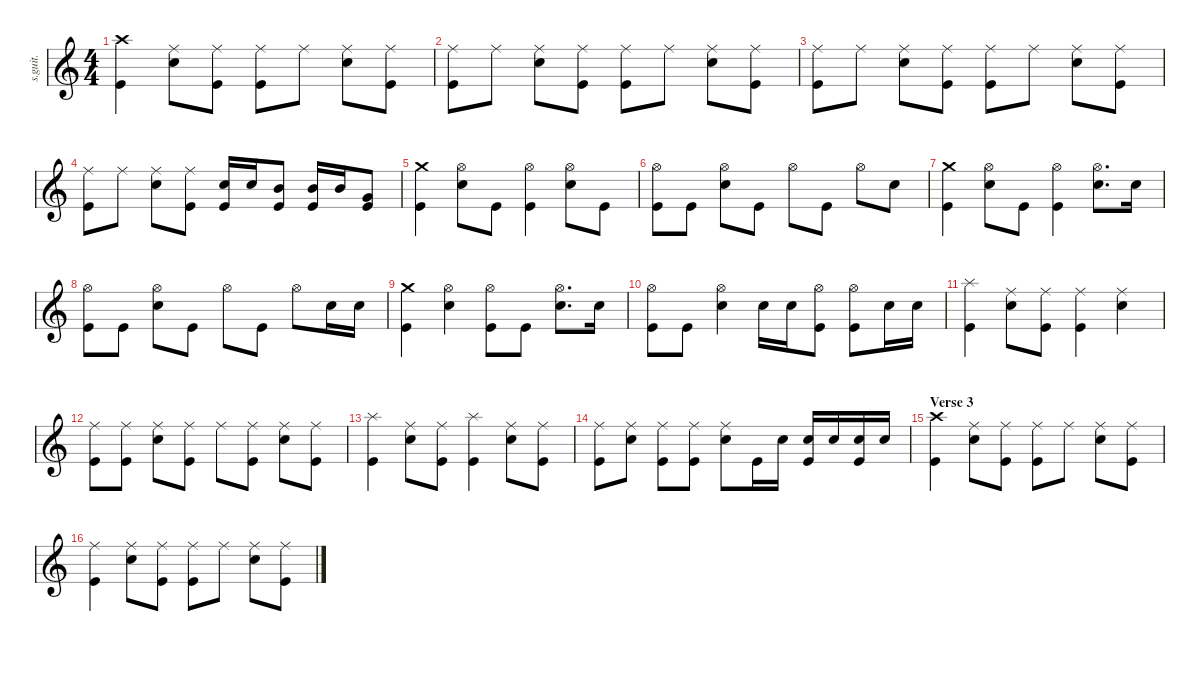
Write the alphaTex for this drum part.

\defaultSystemsLayout 4
\hideDynamics
\bracketExtendMode nobrackets
\track ("Chad Channing - Drums" "s.guit.") {instrument percussion}
\staff {score}
\articulation defaults
\ts (4 4)
\tempo (133 hide)
\clef g2
\ks c
("Kick (hit)" "Crash high (hit)").4{lyrics (0 "") lyrics (1 "") lyrics (2 "") lyrics (3 "") lyrics (4 "") dy f} ("Ride (middle)" "Snare (hit) 2").8{lyrics (0 "") lyrics (1 "") lyrics (2 "") lyrics (3 "") lyrics (4 "")} ("Ride (middle)" "Kick (hit)").8{lyrics (0 "") lyrics (1 "") lyrics (2 "") lyrics (3 "") lyrics (4 "")} ("Ride (middle)" "Kick (hit)").8{lyrics (0 "") lyrics (1 "") lyrics (2 "") lyrics (3 "") lyrics (4 "")} "Ride (middle)".8{lyrics (0 "") lyrics (1 "") lyrics (2 "") lyrics (3 "") lyrics (4 "")} ("Ride (middle)" "Snare (hit) 2").8{lyrics (0 "") lyrics (1 "") lyrics (2 "") lyrics (3 "") lyrics (4 "")} ("Ride (middle)" "Kick (hit)").8{lyrics (0 "") lyrics (1 "") lyrics (2 "") lyrics (3 "") lyrics (4 "")} |
("Ride (middle)" "Kick (hit)").8{lyrics (0 "") lyrics (1 "") lyrics (2 "") lyrics (3 "") lyrics (4 "")} "Ride (middle)".8{lyrics (0 "") lyrics (1 "") lyrics (2 "") lyrics (3 "") lyrics (4 "")} ("Ride (middle)" "Snare (hit) 2").8{lyrics (0 "") lyrics (1 "") lyrics (2 "") lyrics (3 "") lyrics (4 "")} ("Ride (middle)" "Kick (hit)").8{lyrics (0 "") lyrics (1 "") lyrics (2 "") lyrics (3 "") lyrics (4 "")} ("Ride (middle)" "Kick (hit)").8{lyrics (0 "") lyrics (1 "") lyrics (2 "") lyrics (3 "") lyrics (4 "")} "Ride (middle)".8{lyrics (0 "") lyrics (1 "") lyrics (2 "") lyrics (3 "") lyrics (4 "")} ("Ride (middle)" "Snare (hit) 2").8{lyrics (0 "") lyrics (1 "") lyrics (2 "") lyrics (3 "") lyrics (4 "")} ("Ride (middle)" "Kick (hit)").8{lyrics (0 "") lyrics (1 "") lyrics (2 "") lyrics (3 "") lyrics (4 "")} |
("Ride (middle)" "Kick (hit)").8{lyrics (0 "") lyrics (1 "") lyrics (2 "") lyrics (3 "") lyrics (4 "")} "Ride (middle)".8{lyrics (0 "") lyrics (1 "") lyrics (2 "") lyrics (3 "") lyrics (4 "")} ("Ride (middle)" "Snare (hit) 2").8{lyrics (0 "") lyrics (1 "") lyrics (2 "") lyrics (3 "") lyrics (4 "")} ("Ride (middle)" "Kick (hit)").8{lyrics (0 "") lyrics (1 "") lyrics (2 "") lyrics (3 "") lyrics (4 "")} ("Ride (middle)" "Kick (hit)").8{lyrics (0 "") lyrics (1 "") lyrics (2 "") lyrics (3 "") lyrics (4 "")} "Ride (middle)".8{lyrics (0 "") lyrics (1 "") lyrics (2 "") lyrics (3 "") lyrics (4 "")} ("Ride (middle)" "Snare (hit) 2").8{lyrics (0 "") lyrics (1 "") lyrics (2 "") lyrics (3 "") lyrics (4 "")} ("Ride (middle)" "Kick (hit)").8{lyrics (0 "") lyrics (1 "") lyrics (2 "") lyrics (3 "") lyrics (4 "")} |
("Ride (middle)" "Kick (hit)").8{lyrics (0 "") lyrics (1 "") lyrics (2 "") lyrics (3 "") lyrics (4 "")} "Ride (middle)".8{lyrics (0 "") lyrics (1 "") lyrics (2 "") lyrics (3 "") lyrics (4 "")} ("Ride (middle)" "Snare (hit) 2").8{lyrics (0 "") lyrics (1 "") lyrics (2 "") lyrics (3 "") lyrics (4 "")} ("Ride (middle)" "Kick (hit)").8{lyrics (0 "") lyrics (1 "") lyrics (2 "") lyrics (3 "") lyrics (4 "")} ("Snare (hit) 2" "Kick (hit)").16{lyrics (0 "") lyrics (1 "") lyrics (2 "") lyrics (3 "") lyrics (4 "")} "Snare (hit) 2".16{lyrics (0 "") lyrics (1 "") lyrics (2 "") lyrics (3 "") lyrics (4 "")} ("Mid Tom (hit)" "Kick (hit)").8{lyrics (0 "") lyrics (1 "") lyrics (2 "") lyrics (3 "") lyrics (4 "")} ("Mid Tom (hit)" "Kick (hit)").16{lyrics (0 "") lyrics (1 "") lyrics (2 "") lyrics (3 "") lyrics (4 "")} "Mid Tom (hit)".16{lyrics (0 "") lyrics (1 "") lyrics (2 "") lyrics (3 "") lyrics (4 "")} ("Very Low Tom (hit)" "Kick (hit)").8{lyrics (0 "") lyrics (1 "") lyrics (2 "") lyrics (3 "") lyrics (4 "")} |
("Crash medium (hit)" "Kick (hit)").4{lyrics (0 "") lyrics (1 "") lyrics (2 "") lyrics (3 "") lyrics (4 "")} ("Hi-Hat (open)" "Snare (hit) 2").8{lyrics (0 "") lyrics (1 "") lyrics (2 "") lyrics (3 "") lyrics (4 "")} "Kick (hit)".8{lyrics (0 "") lyrics (1 "") lyrics (2 "") lyrics (3 "") lyrics (4 "")} ("Hi-Hat (open)" "Kick (hit)").4{lyrics (0 "") lyrics (1 "") lyrics (2 "") lyrics (3 "") lyrics (4 "")} ("Hi-Hat (open)" "Snare (hit) 2").8{lyrics (0 "") lyrics (1 "") lyrics (2 "") lyrics (3 "") lyrics (4 "")} "Kick (hit)".8{lyrics (0 "") lyrics (1 "") lyrics (2 "") lyrics (3 "") lyrics (4 "")} |
("Hi-Hat (open)" "Kick (hit)").8{lyrics (0 "") lyrics (1 "") lyrics (2 "") lyrics (3 "") lyrics (4 "")} "Kick (hit)".8{lyrics (0 "") lyrics (1 "") lyrics (2 "") lyrics (3 "") lyrics (4 "")} ("Hi-Hat (open)" "Snare (hit) 2").8{lyrics (0 "") lyrics (1 "") lyrics (2 "") lyrics (3 "") lyrics (4 "")} "Kick (hit)".8{lyrics (0 "") lyrics (1 "") lyrics (2 "") lyrics (3 "") lyrics (4 "")} "Hi-Hat (open)".8{lyrics (0 "") lyrics (1 "") lyrics (2 "") lyrics (3 "") lyrics (4 "")} "Kick (hit)".8{lyrics (0 "") lyrics (1 "") lyrics (2 "") lyrics (3 "") lyrics (4 "")} "Hi-Hat (open)".8{lyrics (0 "") lyrics (1 "") lyrics (2 "") lyrics (3 "") lyrics (4 "")} "Snare (hit) 2".8{lyrics (0 "") lyrics (1 "") lyrics (2 "") lyrics (3 "") lyrics (4 "")} |
("Crash medium (hit)" "Kick (hit)").4{lyrics (0 "") lyrics (1 "") lyrics (2 "") lyrics (3 "") lyrics (4 "")} ("Hi-Hat (open)" "Snare (hit) 2").8{lyrics (0 "") lyrics (1 "") lyrics (2 "") lyrics (3 "") lyrics (4 "")} "Kick (hit)".8{lyrics (0 "") lyrics (1 "") lyrics (2 "") lyrics (3 "") lyrics (4 "")} ("Hi-Hat (open)" "Kick (hit)").4{lyrics (0 "") lyrics (1 "") lyrics (2 "") lyrics (3 "") lyrics (4 "")} ("Hi-Hat (open)" "Snare (hit) 2").8{d lyrics (0 "") lyrics (1 "") lyrics (2 "") lyrics (3 "") lyrics (4 "")} "Snare (hit) 2".16{lyrics (0 "") lyrics (1 "") lyrics (2 "") lyrics (3 "") lyrics (4 "")} |
("Hi-Hat (open)" "Kick (hit)").8{lyrics (0 "") lyrics (1 "") lyrics (2 "") lyrics (3 "") lyrics (4 "")} "Kick (hit)".8{lyrics (0 "") lyrics (1 "") lyrics (2 "") lyrics (3 "") lyrics (4 "")} ("Hi-Hat (open)" "Snare (hit) 2").8{lyrics (0 "") lyrics (1 "") lyrics (2 "") lyrics (3 "") lyrics (4 "")} "Kick (hit)".8{lyrics (0 "") lyrics (1 "") lyrics (2 "") lyrics (3 "") lyrics (4 "")} "Hi-Hat (open)".8{lyrics (0 "") lyrics (1 "") lyrics (2 "") lyrics (3 "") lyrics (4 "")} "Kick (hit)".8{lyrics (0 "") lyrics (1 "") lyrics (2 "") lyrics (3 "") lyrics (4 "")} "Hi-Hat (open)".8{lyrics (0 "") lyrics (1 "") lyrics (2 "") lyrics (3 "") lyrics (4 "")} "Snare (hit) 2".16{lyrics (0 "") lyrics (1 "") lyrics (2 "") lyrics (3 "") lyrics (4 "")} "Snare (hit) 2".16{lyrics (0 "") lyrics (1 "") lyrics (2 "") lyrics (3 "") lyrics (4 "")} |
("Crash medium (hit)" "Kick (hit)").4{lyrics (0 "") lyrics (1 "") lyrics (2 "") lyrics (3 "") lyrics (4 "")} ("Hi-Hat (open)" "Snare (hit) 2").4{lyrics (0 "") lyrics (1 "") lyrics (2 "") lyrics (3 "") lyrics (4 "")} ("Hi-Hat (open)" "Kick (hit)").8{lyrics (0 "") lyrics (1 "") lyrics (2 "") lyrics (3 "") lyrics (4 "")} "Kick (hit)".8{lyrics (0 "") lyrics (1 "") lyrics (2 "") lyrics (3 "") lyrics (4 "")} ("Hi-Hat (open)" "Snare (hit) 2").8{d lyrics (0 "") lyrics (1 "") lyrics (2 "") lyrics (3 "") lyrics (4 "")} "Snare (hit) 2".16{lyrics (0 "") lyrics (1 "") lyrics (2 "") lyrics (3 "") lyrics (4 "")} |
("Hi-Hat (open)" "Kick (hit)").8{lyrics (0 "") lyrics (1 "") lyrics (2 "") lyrics (3 "") lyrics (4 "")} "Kick (hit)".8{lyrics (0 "") lyrics (1 "") lyrics (2 "") lyrics (3 "") lyrics (4 "")} ("Hi-Hat (open)" "Snare (hit) 2").4{lyrics (0 "") lyrics (1 "") lyrics (2 "") lyrics (3 "") lyrics (4 "")} "Snare (hit) 2".16{lyrics (0 "") lyrics (1 "") lyrics (2 "") lyrics (3 "") lyrics (4 "")} "Snare (hit) 2".16{lyrics (0 "") lyrics (1 "") lyrics (2 "") lyrics (3 "") lyrics (4 "")} ("Hi-Hat (open)" "Kick (hit)").8{lyrics (0 "") lyrics (1 "") lyrics (2 "") lyrics (3 "") lyrics (4 "")} ("Hi-Hat (open)" "Kick (hit)").8{lyrics (0 "") lyrics (1 "") lyrics (2 "") lyrics (3 "") lyrics (4 "")} "Snare (hit) 2".16{lyrics (0 "") lyrics (1 "") lyrics (2 "") lyrics (3 "") lyrics (4 "")} "Snare (hit) 2".16{lyrics (0 "") lyrics (1 "") lyrics (2 "") lyrics (3 "") lyrics (4 "")} |
("Splash (hit)" "Kick (hit)").4{lyrics (0 "") lyrics (1 "") lyrics (2 "") lyrics (3 "") lyrics (4 "")} ("Ride (middle)" "Snare (hit) 2").8{lyrics (0 "") lyrics (1 "") lyrics (2 "") lyrics (3 "") lyrics (4 "")} ("Ride (middle)" "Kick (hit)").8{lyrics (0 "") lyrics (1 "") lyrics (2 "") lyrics (3 "") lyrics (4 "")} ("Ride (middle)" "Kick (hit)").4{lyrics (0 "") lyrics (1 "") lyrics (2 "") lyrics (3 "") lyrics (4 "")} ("Ride (middle)" "Snare (hit) 2").4{lyrics (0 "") lyrics (1 "") lyrics (2 "") lyrics (3 "") lyrics (4 "")} |
("Ride (middle)" "Kick (hit)").8{lyrics (0 "") lyrics (1 "") lyrics (2 "") lyrics (3 "") lyrics (4 "")} ("Ride (middle)" "Kick (hit)").8{lyrics (0 "") lyrics (1 "") lyrics (2 "") lyrics (3 "") lyrics (4 "")} ("Ride (middle)" "Snare (hit) 2").8{lyrics (0 "") lyrics (1 "") lyrics (2 "") lyrics (3 "") lyrics (4 "")} ("Ride (middle)" "Kick (hit)").8{lyrics (0 "") lyrics (1 "") lyrics (2 "") lyrics (3 "") lyrics (4 "")} "Ride (middle)".8{lyrics (0 "") lyrics (1 "") lyrics (2 "") lyrics (3 "") lyrics (4 "")} ("Ride (middle)" "Kick (hit)").8{lyrics (0 "") lyrics (1 "") lyrics (2 "") lyrics (3 "") lyrics (4 "")} ("Ride (middle)" "Snare (hit) 2").8{lyrics (0 "") lyrics (1 "") lyrics (2 "") lyrics (3 "") lyrics (4 "")} ("Ride (middle)" "Kick (hit)").8{lyrics (0 "") lyrics (1 "") lyrics (2 "") lyrics (3 "") lyrics (4 "")} |
("Splash (hit)" "Kick (hit)").4{lyrics (0 "") lyrics (1 "") lyrics (2 "") lyrics (3 "") lyrics (4 "")} ("Ride (middle)" "Snare (hit) 2").8{lyrics (0 "") lyrics (1 "") lyrics (2 "") lyrics (3 "") lyrics (4 "")} ("Ride (middle)" "Kick (hit)").8{lyrics (0 "") lyrics (1 "") lyrics (2 "") lyrics (3 "") lyrics (4 "")} ("Splash (hit)" "Kick (hit)").4{lyrics (0 "") lyrics (1 "") lyrics (2 "") lyrics (3 "") lyrics (4 "")} ("Ride (middle)" "Snare (hit) 2").8{lyrics (0 "") lyrics (1 "") lyrics (2 "") lyrics (3 "") lyrics (4 "")} ("Ride (middle)" "Kick (hit)").8{lyrics (0 "") lyrics (1 "") lyrics (2 "") lyrics (3 "") lyrics (4 "")} |
("Ride (middle)" "Kick (hit)").8{lyrics (0 "") lyrics (1 "") lyrics (2 "") lyrics (3 "") lyrics (4 "")} ("Ride (middle)" "Snare (hit) 2").8{lyrics (0 "") lyrics (1 "") lyrics (2 "") lyrics (3 "") lyrics (4 "")} ("Ride (middle)" "Kick (hit)").8{lyrics (0 "") lyrics (1 "") lyrics (2 "") lyrics (3 "") lyrics (4 "")} ("Ride (middle)" "Kick (hit)").8{lyrics (0 "") lyrics (1 "") lyrics (2 "") lyrics (3 "") lyrics (4 "")} ("Ride (middle)" "Snare (hit) 2").8{lyrics (0 "") lyrics (1 "") lyrics (2 "") lyrics (3 "") lyrics (4 "")} "Kick (hit)".16{lyrics (0 "") lyrics (1 "") lyrics (2 "") lyrics (3 "") lyrics (4 "")} "Snare (hit) 2".16{lyrics (0 "") lyrics (1 "") lyrics (2 "") lyrics (3 "") lyrics (4 "")} ("Snare (hit) 2" "Kick (hit)").16{lyrics (0 "") lyrics (1 "") lyrics (2 "") lyrics (3 "") lyrics (4 "")} "Snare (hit) 2".16{lyrics (0 "") lyrics (1 "") lyrics (2 "") lyrics (3 "") lyrics (4 "")} ("Snare (hit) 2" "Kick (hit)").16{lyrics (0 "") lyrics (1 "") lyrics (2 "") lyrics (3 "") lyrics (4 "")} "Snare (hit) 2".16{lyrics (0 "") lyrics (1 "") lyrics (2 "") lyrics (3 "") lyrics (4 "")} |
\section ("" "Verse 3")
("Kick (hit)" "Crash high (hit)").4{lyrics (0 "") lyrics (1 "") lyrics (2 "") lyrics (3 "") lyrics (4 "")} ("Ride (middle)" "Snare (hit) 2").8{lyrics (0 "") lyrics (1 "") lyrics (2 "") lyrics (3 "") lyrics (4 "")} ("Ride (middle)" "Kick (hit)").8{lyrics (0 "") lyrics (1 "") lyrics (2 "") lyrics (3 "") lyrics (4 "")} ("Ride (middle)" "Kick (hit)").8{lyrics (0 "") lyrics (1 "") lyrics (2 "") lyrics (3 "") lyrics (4 "")} "Ride (middle)".8{lyrics (0 "") lyrics (1 "") lyrics (2 "") lyrics (3 "") lyrics (4 "")} ("Ride (middle)" "Snare (hit) 2").8{lyrics (0 "") lyrics (1 "") lyrics (2 "") lyrics (3 "") lyrics (4 "")} ("Ride (middle)" "Kick (hit)").8{lyrics (0 "") lyrics (1 "") lyrics (2 "") lyrics (3 "") lyrics (4 "")} |
("Ride (middle)" "Kick (hit)").4{lyrics (0 "") lyrics (1 "") lyrics (2 "") lyrics (3 "") lyrics (4 "")} ("Ride (middle)" "Snare (hit) 2").8{lyrics (0 "") lyrics (1 "") lyrics (2 "") lyrics (3 "") lyrics (4 "")} ("Ride (middle)" "Kick (hit)").8{lyrics (0 "") lyrics (1 "") lyrics (2 "") lyrics (3 "") lyrics (4 "")} ("Ride (middle)" "Kick (hit)").8{lyrics (0 "") lyrics (1 "") lyrics (2 "") lyrics (3 "") lyrics (4 "")} "Ride (middle)".8{lyrics (0 "") lyrics (1 "") lyrics (2 "") lyrics (3 "") lyrics (4 "")} ("Ride (middle)" "Snare (hit) 2").8{lyrics (0 "") lyrics (1 "") lyrics (2 "") lyrics (3 "") lyrics (4 "")} ("Ride (middle)" "Kick (hit)").8{lyrics (0 "") lyrics (1 "") lyrics (2 "") lyrics (3 "") lyrics (4 "")}
